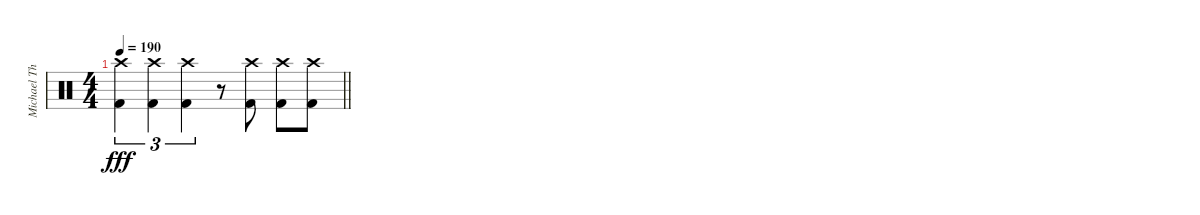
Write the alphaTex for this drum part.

\track ("Michael Thomas Жжёт!" "Michael Th") {instrument percussion}
\staff {score}
\articulation defaults
\ts (4 4)
\tempo 190
\clef neutral
\barLineRight lightlight
\ks c
("Crash high (hit)" "Kick (hit) 2").4{tu (3 2) dy fff} ("Crash high (hit)" "Kick (hit) 2").4{tu (3 2)} ("Crash high (hit)" "Kick (hit) 2").4{tu (3 2)} r.8 ("Crash high (hit)" "Kick (hit) 2").8 ("Crash high (hit)" "Kick (hit) 2").8 ("Crash high (hit)" "Kick (hit) 2").8
